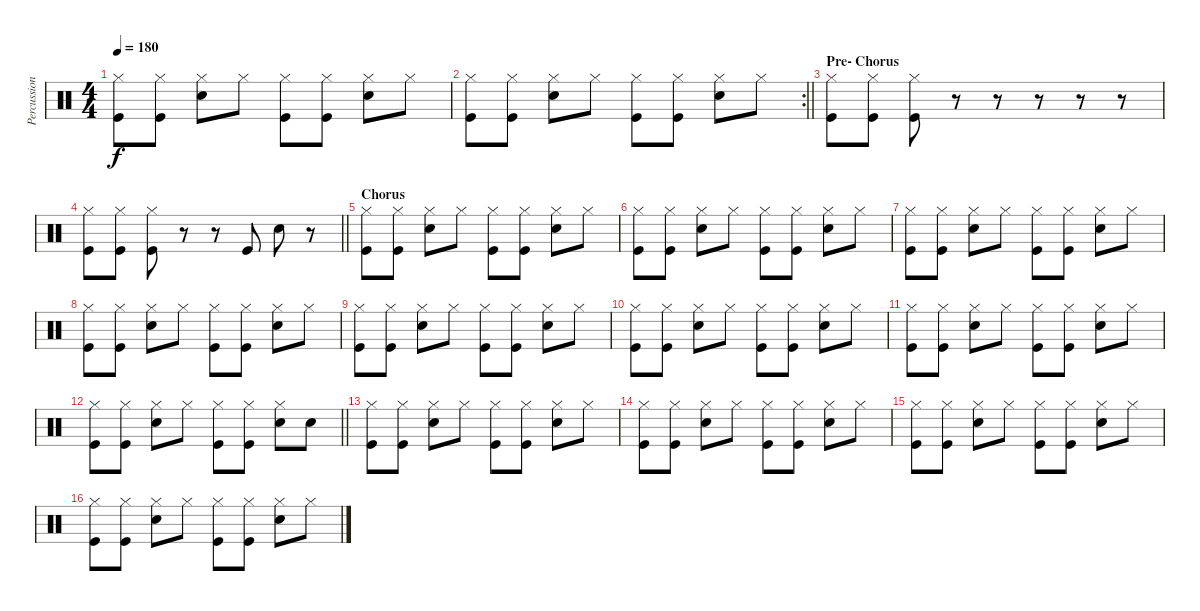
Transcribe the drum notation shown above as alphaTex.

\track ("Percussion" "Percussion") {instrument percussion}
\staff {score}
\articulation defaults
\ts (4 4)
\tempo 180
\clef neutral
\ks c
("Hi-Hat (closed)" "Kick (hit)").8{dy f} ("Hi-Hat (closed)" "Kick (hit)").8 ("Hi-Hat (closed)" "Snare (hit) 2").8 "Hi-Hat (closed)".8 ("Hi-Hat (closed)" "Kick (hit)").8 ("Hi-Hat (closed)" "Kick (hit)").8 ("Hi-Hat (closed)" "Snare (hit) 2").8 "Hi-Hat (closed)".8 |
\rc 2
\barLineRight lightlight
("Hi-Hat (closed)" "Kick (hit)").8 ("Hi-Hat (closed)" "Kick (hit)").8 ("Hi-Hat (closed)" "Snare (hit) 2").8 "Hi-Hat (closed)".8 ("Hi-Hat (closed)" "Kick (hit)").8 ("Hi-Hat (closed)" "Kick (hit)").8 ("Hi-Hat (closed)" "Snare (hit) 2").8 "Hi-Hat (closed)".8 |
\section ("" "Pre- Chorus")
("Hi-Hat (closed)" "Kick (hit)").8 ("Hi-Hat (closed)" "Kick (hit)").8 ("Hi-Hat (closed)" "Kick (hit)").8 r.8 r.8 r.8 r.8 r.8 |
\barLineRight lightlight
("Hi-Hat (closed)" "Kick (hit)").8 ("Hi-Hat (closed)" "Kick (hit)").8 ("Hi-Hat (closed)" "Kick (hit)").8 r.8 r.8 "Kick (hit)".8 "Snare (hit) 2".8 r.8 |
\section ("" "Chorus")
("Hi-Hat (closed)" "Kick (hit)").8 ("Hi-Hat (closed)" "Kick (hit)").8 ("Hi-Hat (closed)" "Snare (hit) 2").8 "Hi-Hat (closed)".8 ("Hi-Hat (closed)" "Kick (hit)").8 ("Hi-Hat (closed)" "Kick (hit)").8 ("Hi-Hat (closed)" "Snare (hit) 2").8 "Hi-Hat (closed)".8 |
("Hi-Hat (closed)" "Kick (hit)").8 ("Hi-Hat (closed)" "Kick (hit)").8 ("Hi-Hat (closed)" "Snare (hit) 2").8 "Hi-Hat (closed)".8 ("Hi-Hat (closed)" "Kick (hit)").8 ("Hi-Hat (closed)" "Kick (hit)").8 ("Hi-Hat (closed)" "Snare (hit) 2").8 "Hi-Hat (closed)".8 |
("Hi-Hat (closed)" "Kick (hit)").8 ("Hi-Hat (closed)" "Kick (hit)").8 ("Hi-Hat (closed)" "Snare (hit) 2").8 "Hi-Hat (closed)".8 ("Hi-Hat (closed)" "Kick (hit)").8 ("Hi-Hat (closed)" "Kick (hit)").8 ("Hi-Hat (closed)" "Snare (hit) 2").8 "Hi-Hat (closed)".8 |
("Hi-Hat (closed)" "Kick (hit)").8 ("Hi-Hat (closed)" "Kick (hit)").8 ("Hi-Hat (closed)" "Snare (hit) 2").8 "Hi-Hat (closed)".8 ("Hi-Hat (closed)" "Kick (hit)").8 ("Hi-Hat (closed)" "Kick (hit)").8 ("Hi-Hat (closed)" "Snare (hit) 2").8 "Hi-Hat (closed)".8 |
("Hi-Hat (closed)" "Kick (hit)").8 ("Hi-Hat (closed)" "Kick (hit)").8 ("Hi-Hat (closed)" "Snare (hit) 2").8 "Hi-Hat (closed)".8 ("Hi-Hat (closed)" "Kick (hit)").8 ("Hi-Hat (closed)" "Kick (hit)").8 ("Hi-Hat (closed)" "Snare (hit) 2").8 "Hi-Hat (closed)".8 |
("Hi-Hat (closed)" "Kick (hit)").8 ("Hi-Hat (closed)" "Kick (hit)").8 ("Hi-Hat (closed)" "Snare (hit) 2").8 "Hi-Hat (closed)".8 ("Hi-Hat (closed)" "Kick (hit)").8 ("Hi-Hat (closed)" "Kick (hit)").8 ("Hi-Hat (closed)" "Snare (hit) 2").8 "Hi-Hat (closed)".8 |
("Hi-Hat (closed)" "Kick (hit)").8 ("Hi-Hat (closed)" "Kick (hit)").8 ("Hi-Hat (closed)" "Snare (hit) 2").8 "Hi-Hat (closed)".8 ("Hi-Hat (closed)" "Kick (hit)").8 ("Hi-Hat (closed)" "Kick (hit)").8 ("Hi-Hat (closed)" "Snare (hit) 2").8 "Hi-Hat (closed)".8 |
\barLineRight lightlight
("Hi-Hat (closed)" "Kick (hit)").8 ("Hi-Hat (closed)" "Kick (hit)").8 ("Hi-Hat (closed)" "Snare (hit) 2").8 "Hi-Hat (closed)".8 ("Hi-Hat (closed)" "Kick (hit)").8 ("Hi-Hat (closed)" "Kick (hit)").8 ("Hi-Hat (closed)" "Snare (hit) 2").8 "Snare (hit)".8 |
("Hi-Hat (closed)" "Kick (hit)").8 ("Hi-Hat (closed)" "Kick (hit)").8 ("Hi-Hat (closed)" "Snare (hit) 2").8 "Hi-Hat (closed)".8 ("Hi-Hat (closed)" "Kick (hit)").8 ("Hi-Hat (closed)" "Kick (hit)").8 ("Hi-Hat (closed)" "Snare (hit) 2").8 "Hi-Hat (closed)".8 |
("Hi-Hat (closed)" "Kick (hit)").8 ("Hi-Hat (closed)" "Kick (hit)").8 ("Hi-Hat (closed)" "Snare (hit) 2").8 "Hi-Hat (closed)".8 ("Hi-Hat (closed)" "Kick (hit)").8 ("Hi-Hat (closed)" "Kick (hit)").8 ("Hi-Hat (closed)" "Snare (hit) 2").8 "Hi-Hat (closed)".8 |
("Hi-Hat (closed)" "Kick (hit)").8 ("Hi-Hat (closed)" "Kick (hit)").8 ("Hi-Hat (closed)" "Snare (hit) 2").8 "Hi-Hat (closed)".8 ("Hi-Hat (closed)" "Kick (hit)").8 ("Hi-Hat (closed)" "Kick (hit)").8 ("Hi-Hat (closed)" "Snare (hit) 2").8 "Hi-Hat (closed)".8 |
("Hi-Hat (closed)" "Kick (hit)").8 ("Hi-Hat (closed)" "Kick (hit)").8 ("Hi-Hat (closed)" "Snare (hit) 2").8 "Hi-Hat (closed)".8 ("Hi-Hat (closed)" "Kick (hit)").8 ("Hi-Hat (closed)" "Kick (hit)").8 ("Hi-Hat (closed)" "Snare (hit) 2").8 "Hi-Hat (closed)".8
